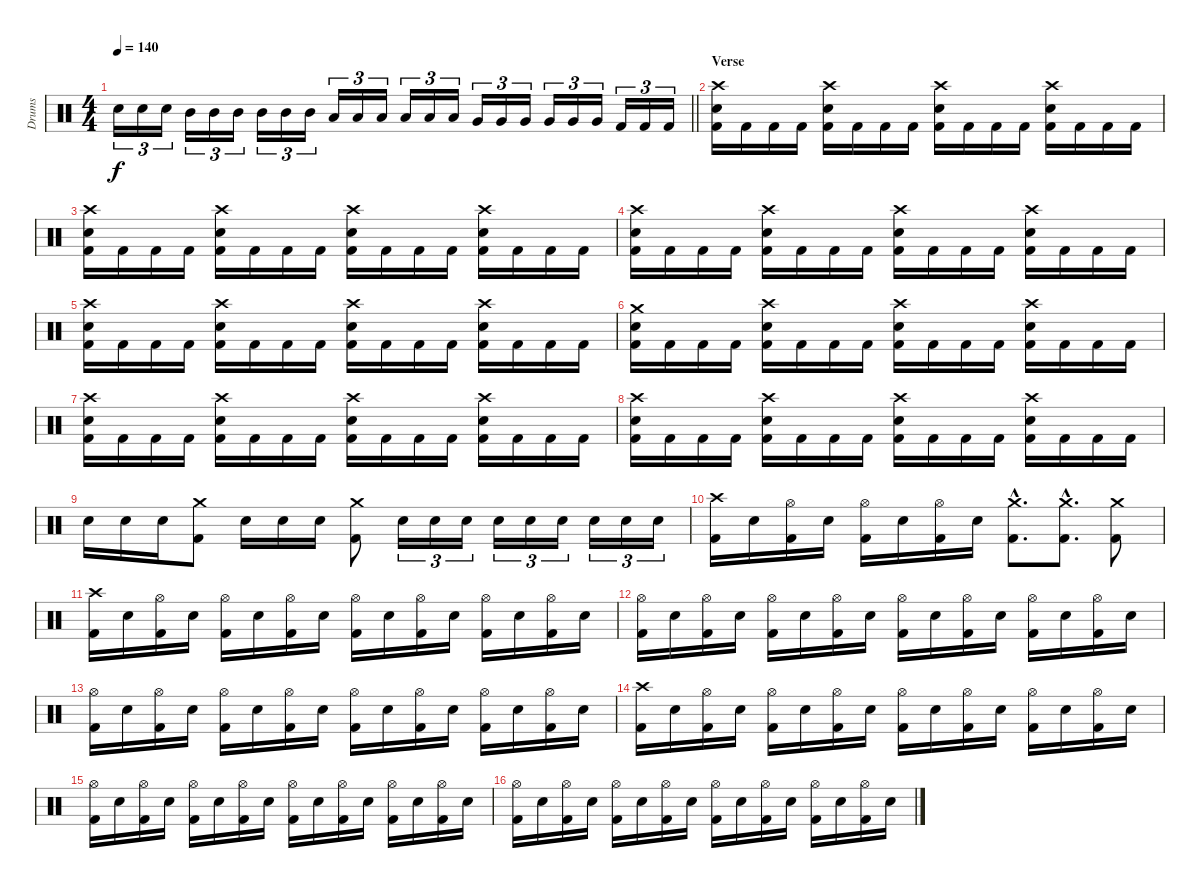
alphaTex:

\track ("Drums" "Drums") {instrument percussion}
\staff {score}
\articulation defaults
\ts (4 4)
\tempo 140
\clef neutral
\barLineRight lightlight
\ks c "Electric Snare (hit)".16{tu (3 2) dy f} "Electric Snare (hit)".16{tu (3 2)} "Electric Snare (hit)".16{tu (3 2)} "Mid Tom (hit)".16{tu (3 2)} "Mid Tom (hit)".16{tu (3 2)} "Mid Tom (hit)".16{tu (3 2)} "Mid Tom (hit)".16{tu (3 2)} "Mid Tom (hit)".16{tu (3 2)} "Mid Tom (hit)".16{tu (3 2)} "Low Tom (hit)".16{tu (3 2)} "Low Tom (hit)".16{tu (3 2)} "Low Tom (hit)".16{tu (3 2)} "Low Tom (hit)".16{tu (3 2)} "Low Tom (hit)".16{tu (3 2)} "Low Tom (hit)".16{tu (3 2)} "Very Low Tom (hit)".16{tu (3 2)} "Very Low Tom (hit)".16{tu (3 2)} "Very Low Tom (hit)".16{tu (3 2)} "Very Low Tom (hit)".16{tu (3 2)} "Very Low Tom (hit)".16{tu (3 2)} "Very Low Tom (hit)".16{tu (3 2)} "Kick (hit) 2".16{tu (3 2)} "Kick (hit) 2".16{tu (3 2)} "Kick (hit) 2".16{tu (3 2)}
|
\section ("" "Verse")
("Crash high (hit)" "Electric Snare (hit)" "Kick (hit) 2").16 "Kick (hit) 2".16 "Kick (hit) 2".16 "Kick (hit) 2".16 ("Crash high (hit)" "Electric Snare (hit)" "Kick (hit) 2").16 "Kick (hit) 2".16 "Kick (hit) 2".16 "Kick (hit) 2".16 ("Crash high (hit)" "Electric Snare (hit)" "Kick (hit) 2").16 "Kick (hit) 2".16 "Kick (hit) 2".16 "Kick (hit) 2".16 ("Crash high (hit)" "Electric Snare (hit)" "Kick (hit) 2").16 "Kick (hit) 2".16 "Kick (hit) 2".16 "Kick (hit) 2".16 |
("Crash high (hit)" "Electric Snare (hit)" "Kick (hit) 2").16 "Kick (hit) 2".16 "Kick (hit) 2".16 "Kick (hit) 2".16 ("Crash high (hit)" "Electric Snare (hit)" "Kick (hit) 2").16 "Kick (hit) 2".16 "Kick (hit) 2".16 "Kick (hit) 2".16 ("Crash high (hit)" "Electric Snare (hit)" "Kick (hit) 2").16 "Kick (hit) 2".16 "Kick (hit) 2".16 "Kick (hit) 2".16 ("Crash high (hit)" "Electric Snare (hit)" "Kick (hit) 2").16 "Kick (hit) 2".16 "Kick (hit) 2".16 "Kick (hit) 2".16 |
("Crash high (hit)" "Electric Snare (hit)" "Kick (hit) 2").16 "Kick (hit) 2".16 "Kick (hit) 2".16 "Kick (hit) 2".16 ("Crash high (hit)" "Electric Snare (hit)" "Kick (hit) 2").16 "Kick (hit) 2".16 "Kick (hit) 2".16 "Kick (hit) 2".16 ("Crash high (hit)" "Electric Snare (hit)" "Kick (hit) 2").16 "Kick (hit) 2".16 "Kick (hit) 2".16 "Kick (hit) 2".16 ("Crash high (hit)" "Electric Snare (hit)" "Kick (hit) 2").16 "Kick (hit) 2".16 "Kick (hit) 2".16 "Kick (hit) 2".16 |
("Crash high (hit)" "Electric Snare (hit)" "Kick (hit) 2").16 "Kick (hit) 2".16 "Kick (hit) 2".16 "Kick (hit) 2".16 ("Crash high (hit)" "Electric Snare (hit)" "Kick (hit) 2").16 "Kick (hit) 2".16 "Kick (hit) 2".16 "Kick (hit) 2".16 ("Crash high (hit)" "Electric Snare (hit)" "Kick (hit) 2").16 "Kick (hit) 2".16 "Kick (hit) 2".16 "Kick (hit) 2".16 ("Crash high (hit)" "Electric Snare (hit)" "Kick (hit) 2").16 "Kick (hit) 2".16 "Kick (hit) 2".16 "Kick (hit) 2".16 |
("Crash medium (hit)" "Electric Snare (hit)" "Kick (hit) 2").16 "Kick (hit) 2".16 "Kick (hit) 2".16 "Kick (hit) 2".16 ("Crash high (hit)" "Electric Snare (hit)" "Kick (hit) 2").16 "Kick (hit) 2".16 "Kick (hit) 2".16 "Kick (hit) 2".16 ("Crash high (hit)" "Electric Snare (hit)" "Kick (hit) 2").16 "Kick (hit) 2".16 "Kick (hit) 2".16 "Kick (hit) 2".16 ("Crash high (hit)" "Electric Snare (hit)" "Kick (hit) 2").16 "Kick (hit) 2".16 "Kick (hit) 2".16 "Kick (hit) 2".16 |
("Crash high (hit)" "Electric Snare (hit)" "Kick (hit) 2").16 "Kick (hit) 2".16 "Kick (hit) 2".16 "Kick (hit) 2".16 ("Crash high (hit)" "Electric Snare (hit)" "Kick (hit) 2").16 "Kick (hit) 2".16 "Kick (hit) 2".16 "Kick (hit) 2".16 ("Crash high (hit)" "Electric Snare (hit)" "Kick (hit) 2").16 "Kick (hit) 2".16 "Kick (hit) 2".16 "Kick (hit) 2".16 ("Crash high (hit)" "Electric Snare (hit)" "Kick (hit) 2").16 "Kick (hit) 2".16 "Kick (hit) 2".16 "Kick (hit) 2".16 |
("Crash high (hit)" "Electric Snare (hit)" "Kick (hit) 2").16 "Kick (hit) 2".16 "Kick (hit) 2".16 "Kick (hit) 2".16 ("Crash high (hit)" "Electric Snare (hit)" "Kick (hit) 2").16 "Kick (hit) 2".16 "Kick (hit) 2".16 "Kick (hit) 2".16 ("Crash high (hit)" "Electric Snare (hit)" "Kick (hit) 2").16 "Kick (hit) 2".16 "Kick (hit) 2".16 "Kick (hit) 2".16 ("Crash high (hit)" "Electric Snare (hit)" "Kick (hit) 2").16 "Kick (hit) 2".16 "Kick (hit) 2".16 "Kick (hit) 2".16 |
"Electric Snare (hit)".16 "Electric Snare (hit)".16 "Electric Snare (hit)".16 ("Crash medium (hit)" "Kick (hit) 2").8 "Electric Snare (hit)".16 "Electric Snare (hit)".16 "Electric Snare (hit)".16 ("Crash medium (hit)" "Kick (hit) 2").8 "Electric Snare (hit)".16{tu (3 2)} "Electric Snare (hit)".16{tu (3 2)} "Electric Snare (hit)".16{tu (3 2)} "Electric Snare (hit)".16{tu (3 2)} "Electric Snare (hit)".16{tu (3 2)} "Electric Snare (hit)".16{tu (3 2)} "Electric Snare (hit)".16{tu (3 2)} "Electric Snare (hit)".16{tu (3 2)} "Electric Snare (hit)".16{tu (3 2)} |
("Crash high (hit)" "Kick (hit) 2").16 "Electric Snare (hit)".16 ("Hi-Hat (open)" "Kick (hit) 2").16 "Electric Snare (hit)".16 ("Hi-Hat (open)" "Kick (hit) 2").16 "Electric Snare (hit)".16 ("Hi-Hat (open)" "Kick (hit) 2").16 "Electric Snare (hit)".16 ("Crash medium (hit)"{hac} "Kick (hit) 2"{hac}).8{d} ("Crash medium (hit)"{hac} "Kick (hit) 2"{hac}).8{d} ("Crash medium (hit)" "Kick (hit) 2").8 |
("Crash high (hit)" "Kick (hit) 2").16 "Electric Snare (hit)".16 ("Hi-Hat (open)" "Kick (hit) 2").16 "Electric Snare (hit)".16 ("Hi-Hat (open)" "Kick (hit) 2").16 "Electric Snare (hit)".16 ("Hi-Hat (open)" "Kick (hit) 2").16 "Electric Snare (hit)".16 ("Hi-Hat (open)" "Kick (hit) 2").16 "Electric Snare (hit)".16 ("Hi-Hat (open)" "Kick (hit) 2").16 "Electric Snare (hit)".16 ("Hi-Hat (open)" "Kick (hit) 2").16 "Electric Snare (hit)".16 ("Hi-Hat (open)" "Kick (hit) 2").16 "Electric Snare (hit)".16 |
("Hi-Hat (open)" "Kick (hit) 2").16 "Electric Snare (hit)".16 ("Hi-Hat (open)" "Kick (hit) 2").16 "Electric Snare (hit)".16 ("Hi-Hat (open)" "Kick (hit) 2").16 "Electric Snare (hit)".16 ("Hi-Hat (open)" "Kick (hit) 2").16 "Electric Snare (hit)".16 ("Hi-Hat (open)" "Kick (hit) 2").16 "Electric Snare (hit)".16 ("Hi-Hat (open)" "Kick (hit) 2").16 "Electric Snare (hit)".16 ("Hi-Hat (open)" "Kick (hit) 2").16 "Electric Snare (hit)".16 ("Hi-Hat (open)" "Kick (hit) 2").16 "Electric Snare (hit)".16 |
("Hi-Hat (open)" "Kick (hit) 2").16 "Electric Snare (hit)".16 ("Hi-Hat (open)" "Kick (hit) 2").16 "Electric Snare (hit)".16 ("Hi-Hat (open)" "Kick (hit) 2").16 "Electric Snare (hit)".16 ("Hi-Hat (open)" "Kick (hit) 2").16 "Electric Snare (hit)".16 ("Hi-Hat (open)" "Kick (hit) 2").16 "Electric Snare (hit)".16 ("Hi-Hat (open)" "Kick (hit) 2").16 "Electric Snare (hit)".16 ("Hi-Hat (open)" "Kick (hit) 2").16 "Electric Snare (hit)".16 ("Hi-Hat (open)" "Kick (hit) 2").16 "Electric Snare (hit)".16 |
("Crash high (hit)" "Kick (hit) 2").16 "Electric Snare (hit)".16 ("Hi-Hat (open)" "Kick (hit) 2").16 "Electric Snare (hit)".16 ("Hi-Hat (open)" "Kick (hit) 2").16 "Electric Snare (hit)".16 ("Hi-Hat (open)" "Kick (hit) 2").16 "Electric Snare (hit)".16 ("Hi-Hat (open)" "Kick (hit) 2").16 "Electric Snare (hit)".16 ("Hi-Hat (open)" "Kick (hit) 2").16 "Electric Snare (hit)".16 ("Hi-Hat (open)" "Kick (hit) 2").16 "Electric Snare (hit)".16 ("Hi-Hat (open)" "Kick (hit) 2").16 "Electric Snare (hit)".16 |
("Hi-Hat (open)" "Kick (hit) 2").16 "Electric Snare (hit)".16 ("Hi-Hat (open)" "Kick (hit) 2").16 "Electric Snare (hit)".16 ("Hi-Hat (open)" "Kick (hit) 2").16 "Electric Snare (hit)".16 ("Hi-Hat (open)" "Kick (hit) 2").16 "Electric Snare (hit)".16 ("Hi-Hat (open)" "Kick (hit) 2").16 "Electric Snare (hit)".16 ("Hi-Hat (open)" "Kick (hit) 2").16 "Electric Snare (hit)".16 ("Hi-Hat (open)" "Kick (hit) 2").16 "Electric Snare (hit)".16 ("Hi-Hat (open)" "Kick (hit) 2").16 "Electric Snare (hit)".16 |
("Hi-Hat (open)" "Kick (hit) 2").16 "Electric Snare (hit)".16 ("Hi-Hat (open)" "Kick (hit) 2").16 "Electric Snare (hit)".16 ("Hi-Hat (open)" "Kick (hit) 2").16 "Electric Snare (hit)".16 ("Hi-Hat (open)" "Kick (hit) 2").16 "Electric Snare (hit)".16 ("Hi-Hat (open)" "Kick (hit) 2").16 "Electric Snare (hit)".16 ("Hi-Hat (open)" "Kick (hit) 2").16 "Electric Snare (hit)".16 ("Hi-Hat (open)" "Kick (hit) 2").16 "Electric Snare (hit)".16 ("Hi-Hat (open)" "Kick (hit) 2").16 "Electric Snare (hit)".16
